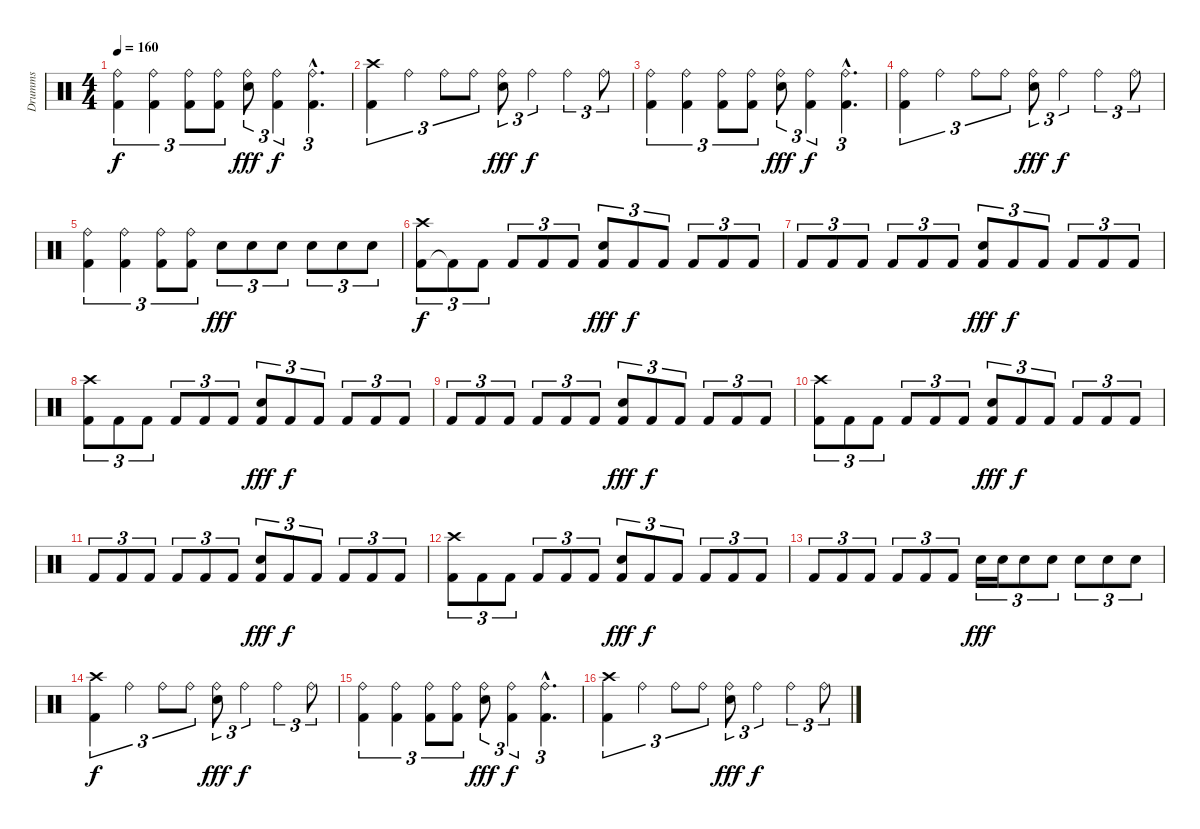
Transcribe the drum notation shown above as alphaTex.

\track ("Drumms" "Drumms") {instrument percussion}
\staff {score}
\articulation defaults
\ts (4 4)
\tempo 160
\clef neutral
\ks c
("Ride (bell)" "Kick (hit) 2").4{tu (3 2) dy f} ("Ride (bell)" "Kick (hit) 2").4{tu (3 2)} ("Ride (bell)" "Kick (hit) 2").8{tu (3 2)} ("Ride (bell)" "Kick (hit) 2").8{tu (3 2)} ("Ride (bell)" "Snare (hit) 2").8{tu (3 2) dy fff} ("Ride (bell)" "Kick (hit) 2").4{tu (3 2) dy f} ("Ride (bell)" "Kick (hit) 2"{hac}).4{d tu (3 2)} |
("Crash high (hit)" "Kick (hit) 2").4{tu (3 2)} "Ride (bell)".4{tu (3 2)} "Ride (bell)".8{tu (3 2)} "Ride (bell)".8{tu (3 2)} ("Ride (bell)" "Snare (hit) 2").8{tu (3 2) dy fff} "Ride (bell)".4{tu (3 2) dy f} "Ride (bell)".4{tu (3 2)} "Ride (bell)".8{tu (3 2)} |
("Ride (bell)" "Kick (hit) 2").4{tu (3 2)} ("Ride (bell)" "Kick (hit) 2").4{tu (3 2)} ("Ride (bell)" "Kick (hit) 2").8{tu (3 2)} ("Ride (bell)" "Kick (hit) 2").8{tu (3 2)} ("Ride (bell)" "Snare (hit) 2").8{tu (3 2) dy fff} ("Ride (bell)" "Kick (hit) 2").4{tu (3 2) dy f} ("Ride (bell)" "Kick (hit) 2"{hac}).4{d tu (3 2)} |
("Ride (bell)" "Kick (hit) 2").4{tu (3 2)} "Ride (bell)".4{tu (3 2)} "Ride (bell)".8{tu (3 2)} "Ride (bell)".8{tu (3 2)} ("Ride (bell)" "Snare (hit) 2").8{tu (3 2) dy fff} "Ride (bell)".4{tu (3 2) dy f} "Ride (bell)".4{tu (3 2)} "Ride (bell)".8{tu (3 2)} |
("Ride (bell)" "Kick (hit) 2").4{tu (3 2)} ("Ride (bell)" "Kick (hit) 2").4{tu (3 2)} ("Ride (bell)" "Kick (hit) 2").8{tu (3 2)} ("Ride (bell)" "Kick (hit) 2").8{tu (3 2)} "Snare (hit) 2".8{tu (3 2) dy fff} "Snare (hit) 2".8{tu (3 2)} "Snare (hit) 2".8{tu (3 2)} "Snare (hit) 2".8{tu (3 2)} "Snare (hit) 2".8{tu (3 2)} "Snare (hit) 2".8{tu (3 2)} |
\section ("" "")
("Kick (hit) 2" "Crash high (hit)").8{tu (3 2) dy f} "Kick (hit) 2"{t}.8{tu (3 2)} "Kick (hit) 2".8{tu (3 2)} "Kick (hit) 2".8{tu (3 2)} "Kick (hit) 2".8{tu (3 2)} "Kick (hit) 2".8{tu (3 2)} ("Snare (hit) 2" "Kick (hit) 2").8{tu (3 2) dy fff} "Kick (hit) 2".8{tu (3 2) dy f} "Kick (hit) 2".8{tu (3 2)} "Kick (hit) 2".8{tu (3 2)} "Kick (hit) 2".8{tu (3 2)} "Kick (hit) 2".8{tu (3 2)} |
"Kick (hit) 2".8{tu (3 2)} "Kick (hit) 2".8{tu (3 2)} "Kick (hit) 2".8{tu (3 2)} "Kick (hit) 2".8{tu (3 2)} "Kick (hit) 2".8{tu (3 2)} "Kick (hit) 2".8{tu (3 2)} ("Snare (hit) 2" "Kick (hit) 2").8{tu (3 2) dy fff} "Kick (hit) 2".8{tu (3 2) dy f} "Kick (hit) 2".8{tu (3 2)} "Kick (hit) 2".8{tu (3 2)} "Kick (hit) 2".8{tu (3 2)} "Kick (hit) 2".8{tu (3 2)} |
("Kick (hit) 2" "Crash high (hit)").8{tu (3 2)} "Kick (hit) 2".8{tu (3 2)} "Kick (hit) 2".8{tu (3 2)} "Kick (hit) 2".8{tu (3 2)} "Kick (hit) 2".8{tu (3 2)} "Kick (hit) 2".8{tu (3 2)} ("Snare (hit) 2" "Kick (hit) 2").8{tu (3 2) dy fff} "Kick (hit) 2".8{tu (3 2) dy f} "Kick (hit) 2".8{tu (3 2)} "Kick (hit) 2".8{tu (3 2)} "Kick (hit) 2".8{tu (3 2)} "Kick (hit) 2".8{tu (3 2)} |
"Kick (hit) 2".8{tu (3 2)} "Kick (hit) 2".8{tu (3 2)} "Kick (hit) 2".8{tu (3 2)} "Kick (hit) 2".8{tu (3 2)} "Kick (hit) 2".8{tu (3 2)} "Kick (hit) 2".8{tu (3 2)} ("Snare (hit) 2" "Kick (hit) 2").8{tu (3 2) dy fff} "Kick (hit) 2".8{tu (3 2) dy f} "Kick (hit) 2".8{tu (3 2)} "Kick (hit) 2".8{tu (3 2)} "Kick (hit) 2".8{tu (3 2)} "Kick (hit) 2".8{tu (3 2)} |
("Kick (hit) 2" "Crash high (hit)").8{tu (3 2)} "Kick (hit) 2".8{tu (3 2)} "Kick (hit) 2".8{tu (3 2)} "Kick (hit) 2".8{tu (3 2)} "Kick (hit) 2".8{tu (3 2)} "Kick (hit) 2".8{tu (3 2)} ("Snare (hit) 2" "Kick (hit) 2").8{tu (3 2) dy fff} "Kick (hit) 2".8{tu (3 2) dy f} "Kick (hit) 2".8{tu (3 2)} "Kick (hit) 2".8{tu (3 2)} "Kick (hit) 2".8{tu (3 2)} "Kick (hit) 2".8{tu (3 2)} |
"Kick (hit) 2".8{tu (3 2)} "Kick (hit) 2".8{tu (3 2)} "Kick (hit) 2".8{tu (3 2)} "Kick (hit) 2".8{tu (3 2)} "Kick (hit) 2".8{tu (3 2)} "Kick (hit) 2".8{tu (3 2)} ("Snare (hit) 2" "Kick (hit) 2").8{tu (3 2) dy fff} "Kick (hit) 2".8{tu (3 2) dy f} "Kick (hit) 2".8{tu (3 2)} "Kick (hit) 2".8{tu (3 2)} "Kick (hit) 2".8{tu (3 2)} "Kick (hit) 2".8{tu (3 2)} |
("Kick (hit) 2" "Crash high (hit)").8{tu (3 2)} "Kick (hit) 2".8{tu (3 2)} "Kick (hit) 2".8{tu (3 2)} "Kick (hit) 2".8{tu (3 2)} "Kick (hit) 2".8{tu (3 2)} "Kick (hit) 2".8{tu (3 2)} ("Snare (hit) 2" "Kick (hit) 2").8{tu (3 2) dy fff} "Kick (hit) 2".8{tu (3 2) dy f} "Kick (hit) 2".8{tu (3 2)} "Kick (hit) 2".8{tu (3 2)} "Kick (hit) 2".8{tu (3 2)} "Kick (hit) 2".8{tu (3 2)} |
"Kick (hit) 2".8{tu (3 2)} "Kick (hit) 2".8{tu (3 2)} "Kick (hit) 2".8{tu (3 2)} "Kick (hit) 2".8{tu (3 2)} "Kick (hit) 2".8{tu (3 2)} "Kick (hit) 2".8{tu (3 2)} "Snare (hit) 2".16{tu (3 2) dy fff} "Snare (hit) 2".16{tu (3 2)} "Snare (hit) 2".8{tu (3 2)} "Snare (hit) 2".8{tu (3 2)} "Snare (hit) 2".8{tu (3 2)} "Snare (hit) 2".8{tu (3 2)} "Snare (hit) 2".8{tu (3 2)} |
\section ("" "")
("Crash high (hit)" "Kick (hit) 2").4{tu (3 2) dy f} "Ride (bell)".4{tu (3 2)} "Ride (bell)".8{tu (3 2)} "Ride (bell)".8{tu (3 2)} ("Ride (bell)" "Snare (hit) 2").8{tu (3 2) dy fff} "Ride (bell)".4{tu (3 2) dy f} "Ride (bell)".4{tu (3 2)} "Ride (bell)".8{tu (3 2)} |
("Ride (bell)" "Kick (hit) 2").4{tu (3 2)} ("Ride (bell)" "Kick (hit) 2").4{tu (3 2)} ("Ride (bell)" "Kick (hit) 2").8{tu (3 2)} ("Ride (bell)" "Kick (hit) 2").8{tu (3 2)} ("Ride (bell)" "Snare (hit) 2").8{tu (3 2) dy fff} ("Ride (bell)" "Kick (hit) 2").4{tu (3 2) dy f} ("Ride (bell)" "Kick (hit) 2"{hac}).4{d tu (3 2)} |
("Crash high (hit)" "Kick (hit) 2").4{tu (3 2)} "Ride (bell)".4{tu (3 2)} "Ride (bell)".8{tu (3 2)} "Ride (bell)".8{tu (3 2)} ("Ride (bell)" "Snare (hit) 2").8{tu (3 2) dy fff} "Ride (bell)".4{tu (3 2) dy f} "Ride (bell)".4{tu (3 2)} "Ride (bell)".8{tu (3 2)}
